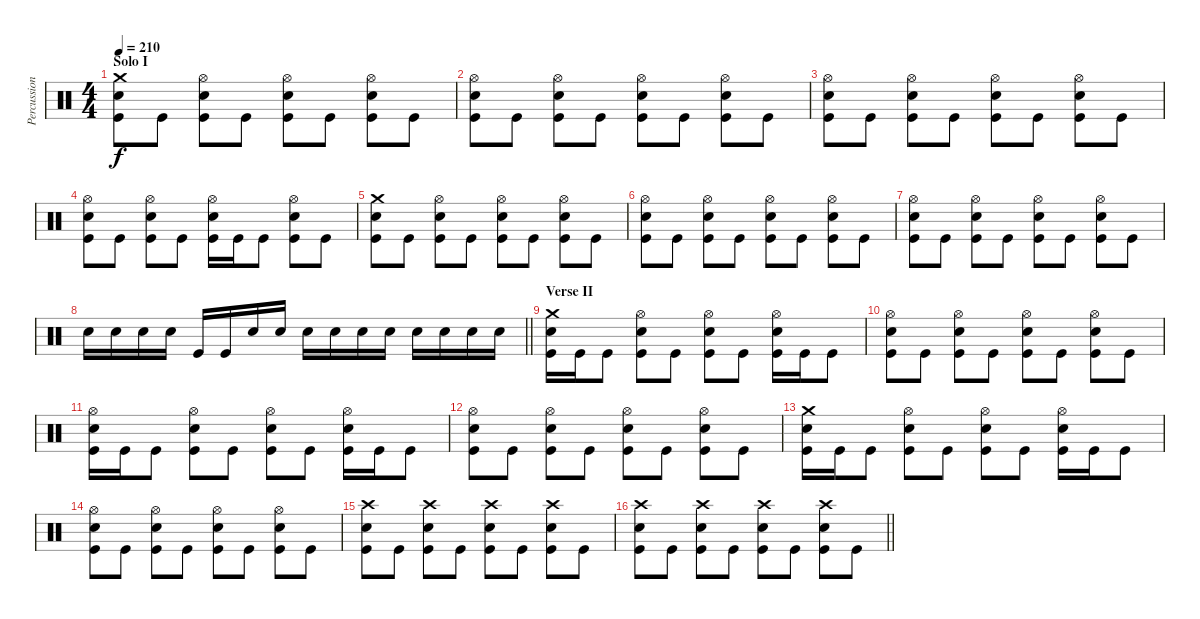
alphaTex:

\track ("Percussion" "Percussion") {instrument percussion}
\staff {score}
\articulation defaults
\ts (4 4)
\section ("" "Solo I")
\tempo 210
\clef neutral
\ks c
("Crash medium (hit)" "Electric Snare (hit)" "Kick (hit)").8{dy f} "Kick (hit)".8 ("Hi-Hat (open)" "Electric Snare (hit)" "Kick (hit)").8 "Kick (hit)".8 ("Hi-Hat (open)" "Electric Snare (hit)" "Kick (hit)").8 "Kick (hit)".8 ("Hi-Hat (open)" "Electric Snare (hit)" "Kick (hit)").8 "Kick (hit)".8 |
("Hi-Hat (open)" "Electric Snare (hit)" "Kick (hit)").8 "Kick (hit)".8 ("Hi-Hat (open)" "Electric Snare (hit)" "Kick (hit)").8 "Kick (hit)".8 ("Hi-Hat (open)" "Electric Snare (hit)" "Kick (hit)").8 "Kick (hit)".8 ("Hi-Hat (open)" "Electric Snare (hit)" "Kick (hit)").8 "Kick (hit)".8 |
("Hi-Hat (open)" "Electric Snare (hit)" "Kick (hit)").8 "Kick (hit)".8 ("Hi-Hat (open)" "Electric Snare (hit)" "Kick (hit)").8 "Kick (hit)".8 ("Hi-Hat (open)" "Electric Snare (hit)" "Kick (hit)").8 "Kick (hit)".8 ("Hi-Hat (open)" "Electric Snare (hit)" "Kick (hit)").8 "Kick (hit)".8 |
("Hi-Hat (open)" "Electric Snare (hit)" "Kick (hit)").8 "Kick (hit)".8 ("Hi-Hat (open)" "Electric Snare (hit)" "Kick (hit)").8 "Kick (hit)".8 ("Hi-Hat (open)" "Electric Snare (hit)" "Kick (hit)").16 "Kick (hit)".16 "Kick (hit)".8 ("Hi-Hat (open)" "Electric Snare (hit)" "Kick (hit)").8 "Kick (hit)".8 |
("Crash medium (hit)" "Electric Snare (hit)" "Kick (hit)").8 "Kick (hit)".8 ("Hi-Hat (open)" "Electric Snare (hit)" "Kick (hit)").8 "Kick (hit)".8 ("Hi-Hat (open)" "Electric Snare (hit)" "Kick (hit)").8 "Kick (hit)".8 ("Hi-Hat (open)" "Electric Snare (hit)" "Kick (hit)").8 "Kick (hit)".8 |
("Hi-Hat (open)" "Electric Snare (hit)" "Kick (hit)").8 "Kick (hit)".8 ("Hi-Hat (open)" "Electric Snare (hit)" "Kick (hit)").8 "Kick (hit)".8 ("Hi-Hat (open)" "Electric Snare (hit)" "Kick (hit)").8 "Kick (hit)".8 ("Hi-Hat (open)" "Electric Snare (hit)" "Kick (hit)").8 "Kick (hit)".8 |
("Hi-Hat (open)" "Electric Snare (hit)" "Kick (hit)").8 "Kick (hit)".8 ("Hi-Hat (open)" "Electric Snare (hit)" "Kick (hit)").8 "Kick (hit)".8 ("Hi-Hat (open)" "Electric Snare (hit)" "Kick (hit)").8 "Kick (hit)".8 ("Hi-Hat (open)" "Electric Snare (hit)" "Kick (hit)").8 "Kick (hit)".8 |
\barLineRight lightlight "Electric Snare (hit)".16 "Electric Snare (hit)".16 "Electric Snare (hit)".16 "Electric Snare (hit)".16 "Kick (hit)".16 "Kick (hit)".16 "Electric Snare (hit)".16 "Electric Snare (hit)".16 "Electric Snare (hit)".16 "Electric Snare (hit)".16 "Electric Snare (hit)".16 "Electric Snare (hit)".16 "Electric Snare (hit)".16 "Electric Snare (hit)".16 "Electric Snare (hit)".16 "Electric Snare (hit)".16
|
\section ("" "Verse II")
("Crash medium (hit)" "Electric Snare (hit)" "Kick (hit)").16 "Kick (hit)".16 "Kick (hit)".8 ("Hi-Hat (open)" "Electric Snare (hit)" "Kick (hit)").8 "Kick (hit)".8 ("Hi-Hat (open)" "Electric Snare (hit)" "Kick (hit)").8 "Kick (hit)".8 ("Hi-Hat (open)" "Electric Snare (hit)" "Kick (hit)").16 "Kick (hit)".16 "Kick (hit)".8 |
("Hi-Hat (open)" "Electric Snare (hit)" "Kick (hit)").8 "Kick (hit)".8 ("Hi-Hat (open)" "Electric Snare (hit)" "Kick (hit)").8 "Kick (hit)".8 ("Hi-Hat (open)" "Electric Snare (hit)" "Kick (hit)").8 "Kick (hit)".8 ("Hi-Hat (open)" "Electric Snare (hit)" "Kick (hit)").8 "Kick (hit)".8 |
("Hi-Hat (open)" "Electric Snare (hit)" "Kick (hit)").16 "Kick (hit)".16 "Kick (hit)".8 ("Hi-Hat (open)" "Electric Snare (hit)" "Kick (hit)").8 "Kick (hit)".8 ("Hi-Hat (open)" "Electric Snare (hit)" "Kick (hit)").8 "Kick (hit)".8 ("Hi-Hat (open)" "Electric Snare (hit)" "Kick (hit)").16 "Kick (hit)".16 "Kick (hit)".8 |
("Hi-Hat (open)" "Electric Snare (hit)" "Kick (hit)").8 "Kick (hit)".8 ("Hi-Hat (open)" "Electric Snare (hit)" "Kick (hit)").8 "Kick (hit)".8 ("Hi-Hat (open)" "Electric Snare (hit)" "Kick (hit)").8 "Kick (hit)".8 ("Hi-Hat (open)" "Electric Snare (hit)" "Kick (hit)").8 "Kick (hit)".8 |
("Crash medium (hit)" "Electric Snare (hit)" "Kick (hit)").16 "Kick (hit)".16 "Kick (hit)".8 ("Hi-Hat (open)" "Electric Snare (hit)" "Kick (hit)").8 "Kick (hit)".8 ("Hi-Hat (open)" "Electric Snare (hit)" "Kick (hit)").8 "Kick (hit)".8 ("Hi-Hat (open)" "Electric Snare (hit)" "Kick (hit)").16 "Kick (hit)".16 "Kick (hit)".8 |
("Hi-Hat (open)" "Electric Snare (hit)" "Kick (hit)").8 "Kick (hit)".8 ("Hi-Hat (open)" "Electric Snare (hit)" "Kick (hit)").8 "Kick (hit)".8 ("Hi-Hat (open)" "Electric Snare (hit)" "Kick (hit)").8 "Kick (hit)".8 ("Hi-Hat (open)" "Electric Snare (hit)" "Kick (hit)").8 "Kick (hit)".8 |
("Crash high (hit)" "Electric Snare (hit)" "Kick (hit)").8 "Kick (hit)".8 ("Crash high (hit)" "Electric Snare (hit)" "Kick (hit)").8 "Kick (hit)".8 ("Crash high (hit)" "Electric Snare (hit)" "Kick (hit)").8 "Kick (hit)".8 ("Crash high (hit)" "Electric Snare (hit)" "Kick (hit)").8 "Kick (hit)".8 |
\barLineRight lightlight
("Crash high (hit)" "Electric Snare (hit)" "Kick (hit)").8 "Kick (hit)".8 ("Crash high (hit)" "Electric Snare (hit)" "Kick (hit)").8 "Kick (hit)".8 ("Crash high (hit)" "Electric Snare (hit)" "Kick (hit)").8 "Kick (hit)".8 ("Crash high (hit)" "Electric Snare (hit)" "Kick (hit)").8 "Kick (hit)".8
